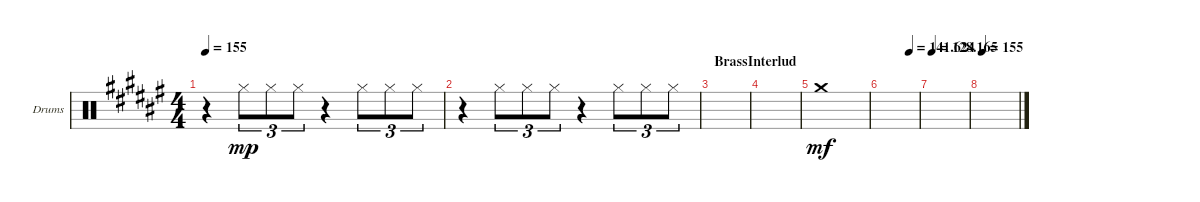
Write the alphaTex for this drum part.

\bracketExtendMode groupsimilarinstruments
\firstSystemTrackNameOrientation horizontal
\otherSystemsTrackNameOrientation horizontal
\track ("Perc" "Drums") {instrument percussion}
\staff {score}
\articulation defaults
\ts (4 4)
\tempo 155
\clef neutral
\ks f#
r.4{dy mp} "Hi-Hat (closed)".8{tu (3 2)} "Hi-Hat (closed)".8{tu (3 2)} "Hi-Hat (closed)".8{tu (3 2)} r.4 "Hi-Hat (closed)".8{tu (3 2)} "Hi-Hat (closed)".8{tu (3 2)} "Hi-Hat (closed)".8{tu (3 2)} |
r.4 "Hi-Hat (closed)".8{tu (3 2)} "Hi-Hat (closed)".8{tu (3 2)} "Hi-Hat (closed)".8{tu (3 2)} r.4 "Hi-Hat (closed)".8{tu (3 2)} "Hi-Hat (closed)".8{tu (3 2)} "Hi-Hat (closed)".8{tu (3 2)} |
\section ("" "BrassInterlud")
|
|
"Crash medium (hit)".1{dy mf} |
\tempo (141.624 0.75)
|
\tempo
128.165 |
\tempo (155 0.00625)
